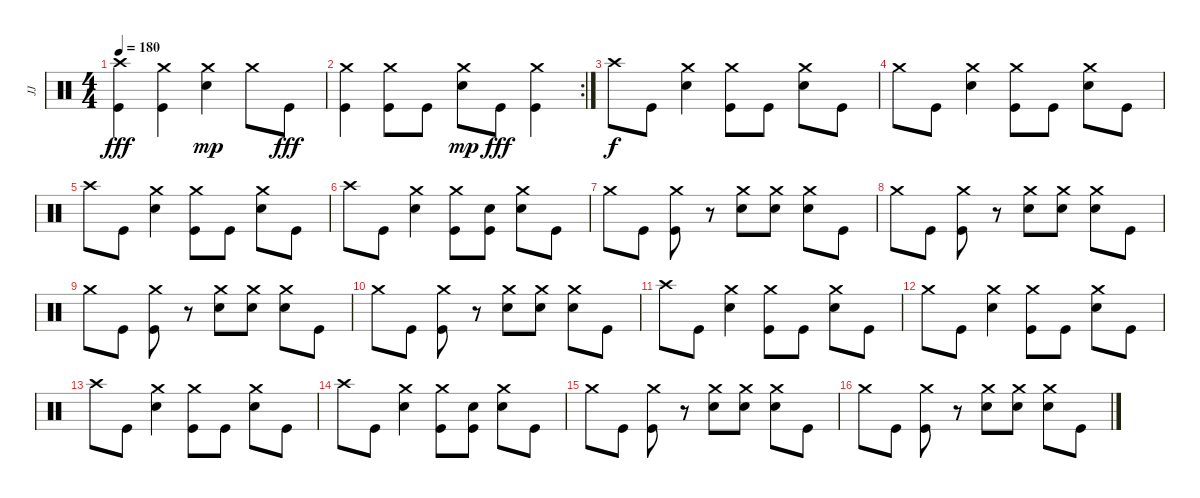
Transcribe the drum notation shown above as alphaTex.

\track ("JJ" "JJ") {mute instrument percussion}
\staff {score}
\articulation defaults
\ts (4 4)
\tempo 180
\clef neutral
\ks c
("Crash high (hit)" "Kick (hit)").4{dy fff} ("Crash medium (hit)" "Kick (hit)").4 ("Crash medium (hit)" "Snare (hit) 2").4{dy mp} "Crash medium (hit)".8 "Kick (hit)".8{dy fff} |
\rc 2
("Crash medium (hit)" "Kick (hit)").4 ("Crash medium (hit)" "Kick (hit)").8 "Kick (hit)".8 ("Crash medium (hit)" "Snare (hit) 2").8{dy mp} "Kick (hit)".8{dy fff} ("Crash medium (hit)" "Kick (hit)").4 |
"Crash high (hit)".8{dy f} "Kick (hit)".8 ("Crash medium (hit)" "Snare (hit) 2").4 ("Crash medium (hit)" "Kick (hit)").8 "Kick (hit)".8 ("Crash medium (hit)" "Snare (hit) 2").8 "Kick (hit)".8 |
"Crash medium (hit)".8 "Kick (hit)".8 ("Crash medium (hit)" "Snare (hit) 2").4 ("Crash medium (hit)" "Kick (hit)").8 "Kick (hit)".8 ("Crash medium (hit)" "Snare (hit) 2").8 "Kick (hit)".8 |
"Crash high (hit)".8 "Kick (hit)".8 ("Crash medium (hit)" "Snare (hit) 2").4 ("Crash medium (hit)" "Kick (hit)").8 "Kick (hit)".8 ("Crash medium (hit)" "Snare (hit) 2").8 "Kick (hit)".8 |
"Crash high (hit)".8 "Kick (hit)".8 ("Crash medium (hit)" "Snare (hit) 2").4 ("Crash medium (hit)" "Kick (hit)").8 ("Snare (hit) 2" "Kick (hit)").8 ("Crash medium (hit)" "Snare (hit) 2").8 "Kick (hit)".8 |
"Crash medium (hit)".8 "Kick (hit)".8 ("Crash medium (hit)" "Kick (hit)").8 r.8 ("Crash medium (hit)" "Snare (hit) 2").8 ("Crash medium (hit)" "Snare (hit) 2").8 ("Crash medium (hit)" "Snare (hit) 2").8 "Kick (hit)".8 |
"Crash medium (hit)".8 "Kick (hit)".8 ("Crash medium (hit)" "Kick (hit)").8 r.8 ("Crash medium (hit)" "Snare (hit) 2").8 ("Crash medium (hit)" "Snare (hit) 2").8 ("Crash medium (hit)" "Snare (hit) 2").8 "Kick (hit)".8 |
"Crash medium (hit)".8 "Kick (hit)".8 ("Crash medium (hit)" "Kick (hit)").8 r.8 ("Crash medium (hit)" "Snare (hit) 2").8 ("Crash medium (hit)" "Snare (hit) 2").8 ("Crash medium (hit)" "Snare (hit) 2").8 "Kick (hit)".8 |
"Crash medium (hit)".8 "Kick (hit)".8 ("Crash medium (hit)" "Kick (hit)").8 r.8 ("Crash medium (hit)" "Snare (hit) 2").8 ("Crash medium (hit)" "Snare (hit) 2").8 ("Crash medium (hit)" "Snare (hit) 2").8 "Kick (hit)".8 |
"Crash high (hit)".8 "Kick (hit)".8 ("Crash medium (hit)" "Snare (hit) 2").4 ("Crash medium (hit)" "Kick (hit)").8 "Kick (hit)".8 ("Crash medium (hit)" "Snare (hit) 2").8 "Kick (hit)".8 |
"Crash medium (hit)".8 "Kick (hit)".8 ("Crash medium (hit)" "Snare (hit) 2").4 ("Crash medium (hit)" "Kick (hit)").8 "Kick (hit)".8 ("Crash medium (hit)" "Snare (hit) 2").8 "Kick (hit)".8 |
"Crash high (hit)".8 "Kick (hit)".8 ("Crash medium (hit)" "Snare (hit) 2").4 ("Crash medium (hit)" "Kick (hit)").8 "Kick (hit)".8 ("Crash medium (hit)" "Snare (hit) 2").8 "Kick (hit)".8 |
"Crash high (hit)".8 "Kick (hit)".8 ("Crash medium (hit)" "Snare (hit) 2").4 ("Crash medium (hit)" "Kick (hit)").8 ("Snare (hit) 2" "Kick (hit)").8 ("Crash medium (hit)" "Snare (hit) 2").8 "Kick (hit)".8 |
"Crash medium (hit)".8 "Kick (hit)".8 ("Crash medium (hit)" "Kick (hit)").8 r.8 ("Crash medium (hit)" "Snare (hit) 2").8 ("Crash medium (hit)" "Snare (hit) 2").8 ("Crash medium (hit)" "Snare (hit) 2").8 "Kick (hit)".8 |
"Crash medium (hit)".8 "Kick (hit)".8 ("Crash medium (hit)" "Kick (hit)").8 r.8 ("Crash medium (hit)" "Snare (hit) 2").8 ("Crash medium (hit)" "Snare (hit) 2").8 ("Crash medium (hit)" "Snare (hit) 2").8 "Kick (hit)".8
